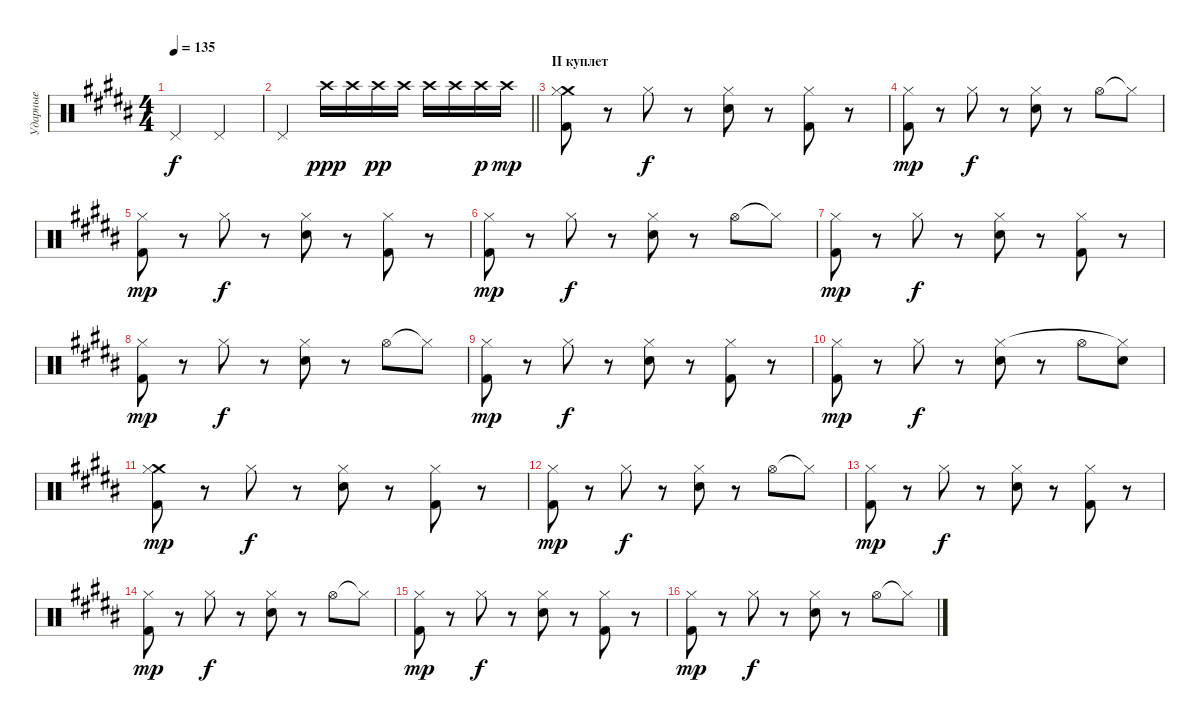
\track ("Ударные" "Ударные") {instrument percussion}
\staff {score}
\articulation defaults
\ts (4 4)
\section ("" "")
\tempo 135
\clef neutral
\ks g#minor "Pedal Hi-Hat (hit)".2{dy f} "Pedal Hi-Hat (hit)".2
|
\barLineRight lightlight "Pedal Hi-Hat (hit)".2 "Crash high (hit)".16{dy ppp} "Crash high (hit)".16 "Crash high (hit)".16{dy pp} "Crash high (hit)".16 "Crash high (hit)".16 "Crash high (hit)".16 "Crash high (hit)".16{dy p} "Crash high (hit)".16{dy mp}
|
\section ("" "II куплет")
("Crash medium (hit)" "Kick (hit) 2" "Hi-Hat (closed)").8 r.8 "Hi-Hat (closed)".8{dy f} r.8 ("Electric Snare (hit)" "Hi-Hat (closed)").8 r.8 ("Kick (hit) 2" "Hi-Hat (closed)").8 r.8 |
("Kick (hit) 2" "Hi-Hat (closed)").8{dy mp} r.8 "Hi-Hat (closed)".8{dy f} r.8 ("Electric Snare (hit)" "Hi-Hat (closed)").8 r.8 "Hi-Hat (open)".8 "Hi-Hat (closed)"{t}.8 |
("Kick (hit) 2" "Hi-Hat (closed)").8{dy mp} r.8 "Hi-Hat (closed)".8{dy f} r.8 ("Electric Snare (hit)" "Hi-Hat (closed)").8 r.8 ("Kick (hit) 2" "Hi-Hat (closed)").8 r.8 |
("Kick (hit) 2" "Hi-Hat (closed)").8{dy mp} r.8 "Hi-Hat (closed)".8{dy f} r.8 ("Electric Snare (hit)" "Hi-Hat (closed)").8 r.8 "Hi-Hat (open)".8 "Hi-Hat (closed)"{t}.8 |
("Kick (hit) 2" "Hi-Hat (closed)").8{dy mp} r.8 "Hi-Hat (closed)".8{dy f} r.8 ("Electric Snare (hit)" "Hi-Hat (closed)").8 r.8 ("Kick (hit) 2" "Hi-Hat (closed)").8 r.8 |
("Kick (hit) 2" "Hi-Hat (closed)").8{dy mp} r.8 "Hi-Hat (closed)".8{dy f} r.8 ("Electric Snare (hit)" "Hi-Hat (closed)").8 r.8 "Hi-Hat (open)".8 "Hi-Hat (closed)"{t}.8 |
("Kick (hit) 2" "Hi-Hat (closed)").8{dy mp} r.8 "Hi-Hat (closed)".8{dy f} r.8 ("Electric Snare (hit)" "Hi-Hat (closed)").8 r.8 ("Kick (hit) 2" "Hi-Hat (closed)").8 r.8 |
("Kick (hit) 2" "Hi-Hat (closed)").8{dy mp} r.8 "Hi-Hat (closed)".8{dy f} r.8 ("Electric Snare (hit)" "Hi-Hat (closed)").8 r.8 "Hi-Hat (open)".8 ("Electric Snare (hit)" "Hi-Hat (closed)"{t}).8 |
("Crash medium (hit)" "Kick (hit) 2" "Hi-Hat (closed)").8{dy mp} r.8 "Hi-Hat (closed)".8{dy f} r.8 ("Electric Snare (hit)" "Hi-Hat (closed)").8 r.8 ("Kick (hit) 2" "Hi-Hat (closed)").8 r.8 |
("Kick (hit) 2" "Hi-Hat (closed)").8{dy mp} r.8 "Hi-Hat (closed)".8{dy f} r.8 ("Electric Snare (hit)" "Hi-Hat (closed)").8 r.8 "Hi-Hat (open)".8 "Hi-Hat (closed)"{t}.8 |
("Kick (hit) 2" "Hi-Hat (closed)").8{dy mp} r.8 "Hi-Hat (closed)".8{dy f} r.8 ("Electric Snare (hit)" "Hi-Hat (closed)").8 r.8 ("Kick (hit) 2" "Hi-Hat (closed)").8 r.8 |
("Kick (hit) 2" "Hi-Hat (closed)").8{dy mp} r.8 "Hi-Hat (closed)".8{dy f} r.8 ("Electric Snare (hit)" "Hi-Hat (closed)").8 r.8 "Hi-Hat (open)".8 "Hi-Hat (closed)"{t}.8 |
("Kick (hit) 2" "Hi-Hat (closed)").8{dy mp} r.8 "Hi-Hat (closed)".8{dy f} r.8 ("Electric Snare (hit)" "Hi-Hat (closed)").8 r.8 ("Kick (hit) 2" "Hi-Hat (closed)").8 r.8 |
("Kick (hit) 2" "Hi-Hat (closed)").8{dy mp} r.8 "Hi-Hat (closed)".8{dy f} r.8 ("Electric Snare (hit)" "Hi-Hat (closed)").8 r.8 "Hi-Hat (open)".8 "Hi-Hat (closed)"{t}.8
